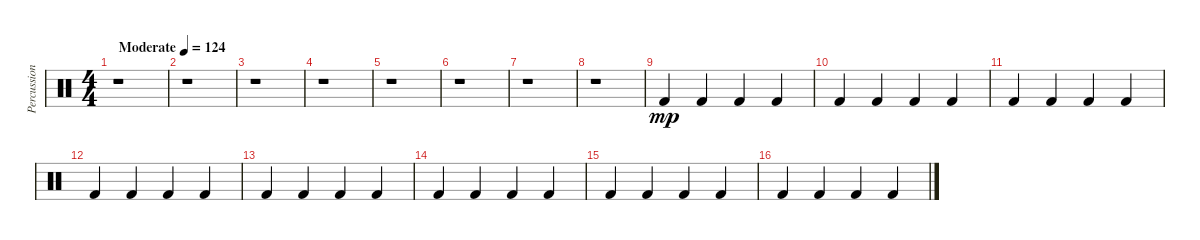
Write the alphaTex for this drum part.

\track ("Percussion" "Percussion") {instrument percussion}
\staff {score}
\articulation defaults
\ts (4 4)
\tempo (124 "Moderate")
\clef neutral
\ks c
r.1{dy mp} |
r.1 |
r.1 |
r.1 |
r.1 |
r.1 |
r.1 |
r.1 |
"Kick (hit) 2".4 "Kick (hit) 2".4 "Kick (hit) 2".4 "Kick (hit) 2".4 |
"Kick (hit) 2".4 "Kick (hit) 2".4 "Kick (hit) 2".4 "Kick (hit) 2".4 |
"Kick (hit) 2".4 "Kick (hit) 2".4 "Kick (hit) 2".4 "Kick (hit) 2".4 |
"Kick (hit) 2".4 "Kick (hit) 2".4 "Kick (hit) 2".4 "Kick (hit) 2".4 |
"Kick (hit) 2".4 "Kick (hit) 2".4 "Kick (hit) 2".4 "Kick (hit) 2".4 |
"Kick (hit) 2".4 "Kick (hit) 2".4 "Kick (hit) 2".4 "Kick (hit) 2".4 |
"Kick (hit) 2".4 "Kick (hit) 2".4 "Kick (hit) 2".4 "Kick (hit) 2".4 |
"Kick (hit) 2".4 "Kick (hit) 2".4 "Kick (hit) 2".4 "Kick (hit) 2".4
